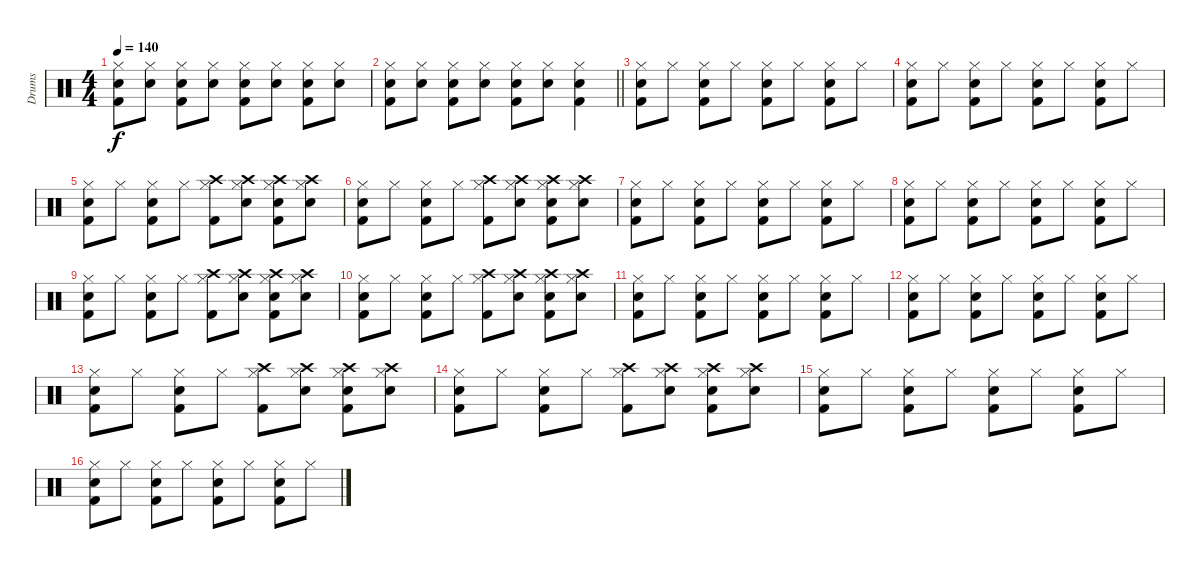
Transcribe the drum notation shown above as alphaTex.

\track ("Drums" "Drums") {instrument percussion}
\staff {score}
\articulation defaults
\ts (4 4)
\tempo 140
\clef neutral
\ks c
("Hi-Hat (closed)" "Electric Snare (hit)" "Kick (hit) 2").8{dy f} ("Hi-Hat (closed)" "Electric Snare (hit)").8 ("Hi-Hat (closed)" "Electric Snare (hit)" "Kick (hit) 2").8 ("Hi-Hat (closed)" "Electric Snare (hit)").8 ("Hi-Hat (closed)" "Electric Snare (hit)" "Kick (hit) 2").8 ("Hi-Hat (closed)" "Electric Snare (hit)").8 ("Hi-Hat (closed)" "Electric Snare (hit)" "Kick (hit) 2").8 ("Hi-Hat (closed)" "Electric Snare (hit)").8 |
\barLineRight lightlight
("Hi-Hat (closed)" "Electric Snare (hit)" "Kick (hit) 2").8 ("Hi-Hat (closed)" "Electric Snare (hit)").8 ("Hi-Hat (closed)" "Electric Snare (hit)" "Kick (hit) 2").8 ("Hi-Hat (closed)" "Electric Snare (hit)").8 ("Hi-Hat (closed)" "Electric Snare (hit)" "Kick (hit) 2").8 ("Hi-Hat (closed)" "Electric Snare (hit)").8 ("Hi-Hat (closed)" "Electric Snare (hit)" "Kick (hit) 2").4 |
("Hi-Hat (closed)" "Electric Snare (hit)" "Kick (hit) 2").8 "Hi-Hat (closed)".8 ("Hi-Hat (closed)" "Electric Snare (hit)" "Kick (hit) 2").8 "Hi-Hat (closed)".8 ("Hi-Hat (closed)" "Electric Snare (hit)" "Kick (hit) 2").8 "Hi-Hat (closed)".8 ("Hi-Hat (closed)" "Electric Snare (hit)" "Kick (hit) 2").8 "Hi-Hat (closed)".8 |
("Hi-Hat (closed)" "Electric Snare (hit)" "Kick (hit) 2").8 "Hi-Hat (closed)".8 ("Hi-Hat (closed)" "Electric Snare (hit)" "Kick (hit) 2").8 "Hi-Hat (closed)".8 ("Hi-Hat (closed)" "Electric Snare (hit)" "Kick (hit) 2").8 "Hi-Hat (closed)".8 ("Hi-Hat (closed)" "Electric Snare (hit)" "Kick (hit) 2").8 "Hi-Hat (closed)".8 |
("Hi-Hat (closed)" "Electric Snare (hit)" "Kick (hit) 2").8 "Hi-Hat (closed)".8 ("Hi-Hat (closed)" "Electric Snare (hit)" "Kick (hit) 2").8 "Hi-Hat (closed)".8 ("Hi-Hat (closed)" "Crash high (hit)" "Kick (hit) 2").8 ("Hi-Hat (closed)" "Crash high (hit)" "Electric Snare (hit)").8 ("Hi-Hat (closed)" "Crash high (hit)" "Electric Snare (hit)" "Kick (hit) 2").8 ("Hi-Hat (closed)" "Crash high (hit)" "Electric Snare (hit)").8 |
("Hi-Hat (closed)" "Electric Snare (hit)" "Kick (hit) 2").8 "Hi-Hat (closed)".8 ("Hi-Hat (closed)" "Electric Snare (hit)" "Kick (hit) 2").8 "Hi-Hat (closed)".8 ("Hi-Hat (closed)" "Crash high (hit)" "Kick (hit) 2").8 ("Hi-Hat (closed)" "Crash high (hit)" "Electric Snare (hit)").8 ("Hi-Hat (closed)" "Crash high (hit)" "Electric Snare (hit)" "Kick (hit) 2").8 ("Hi-Hat (closed)" "Crash high (hit)" "Electric Snare (hit)").8 |
("Hi-Hat (closed)" "Electric Snare (hit)" "Kick (hit) 2").8 "Hi-Hat (closed)".8 ("Hi-Hat (closed)" "Electric Snare (hit)" "Kick (hit) 2").8 "Hi-Hat (closed)".8 ("Hi-Hat (closed)" "Electric Snare (hit)" "Kick (hit) 2").8 "Hi-Hat (closed)".8 ("Hi-Hat (closed)" "Electric Snare (hit)" "Kick (hit) 2").8 "Hi-Hat (closed)".8 |
("Hi-Hat (closed)" "Electric Snare (hit)" "Kick (hit) 2").8 "Hi-Hat (closed)".8 ("Hi-Hat (closed)" "Electric Snare (hit)" "Kick (hit) 2").8 "Hi-Hat (closed)".8 ("Hi-Hat (closed)" "Electric Snare (hit)" "Kick (hit) 2").8 "Hi-Hat (closed)".8 ("Hi-Hat (closed)" "Electric Snare (hit)" "Kick (hit) 2").8 "Hi-Hat (closed)".8 |
("Hi-Hat (closed)" "Electric Snare (hit)" "Kick (hit) 2").8 "Hi-Hat (closed)".8 ("Hi-Hat (closed)" "Electric Snare (hit)" "Kick (hit) 2").8 "Hi-Hat (closed)".8 ("Hi-Hat (closed)" "Crash high (hit)" "Kick (hit) 2").8 ("Hi-Hat (closed)" "Crash high (hit)" "Electric Snare (hit)").8 ("Hi-Hat (closed)" "Crash high (hit)" "Electric Snare (hit)" "Kick (hit) 2").8 ("Hi-Hat (closed)" "Crash high (hit)" "Electric Snare (hit)").8 |
("Hi-Hat (closed)" "Electric Snare (hit)" "Kick (hit) 2").8 "Hi-Hat (closed)".8 ("Hi-Hat (closed)" "Electric Snare (hit)" "Kick (hit) 2").8 "Hi-Hat (closed)".8 ("Hi-Hat (closed)" "Crash high (hit)" "Kick (hit) 2").8 ("Hi-Hat (closed)" "Crash high (hit)" "Electric Snare (hit)").8 ("Hi-Hat (closed)" "Crash high (hit)" "Electric Snare (hit)" "Kick (hit) 2").8 ("Hi-Hat (closed)" "Crash high (hit)" "Electric Snare (hit)").8 |
("Hi-Hat (closed)" "Electric Snare (hit)" "Kick (hit) 2").8 "Hi-Hat (closed)".8 ("Hi-Hat (closed)" "Electric Snare (hit)" "Kick (hit) 2").8 "Hi-Hat (closed)".8 ("Hi-Hat (closed)" "Electric Snare (hit)" "Kick (hit) 2").8 "Hi-Hat (closed)".8 ("Hi-Hat (closed)" "Electric Snare (hit)" "Kick (hit) 2").8 "Hi-Hat (closed)".8 |
("Hi-Hat (closed)" "Electric Snare (hit)" "Kick (hit) 2").8 "Hi-Hat (closed)".8 ("Hi-Hat (closed)" "Electric Snare (hit)" "Kick (hit) 2").8 "Hi-Hat (closed)".8 ("Hi-Hat (closed)" "Electric Snare (hit)" "Kick (hit) 2").8 "Hi-Hat (closed)".8 ("Hi-Hat (closed)" "Electric Snare (hit)" "Kick (hit) 2").8 "Hi-Hat (closed)".8 |
("Hi-Hat (closed)" "Electric Snare (hit)" "Kick (hit) 2").8 "Hi-Hat (closed)".8 ("Hi-Hat (closed)" "Electric Snare (hit)" "Kick (hit) 2").8 "Hi-Hat (closed)".8 ("Hi-Hat (closed)" "Crash high (hit)" "Kick (hit) 2").8 ("Hi-Hat (closed)" "Crash high (hit)" "Electric Snare (hit)").8 ("Hi-Hat (closed)" "Crash high (hit)" "Electric Snare (hit)" "Kick (hit) 2").8 ("Hi-Hat (closed)" "Crash high (hit)" "Electric Snare (hit)").8 |
("Hi-Hat (closed)" "Electric Snare (hit)" "Kick (hit) 2").8 "Hi-Hat (closed)".8 ("Hi-Hat (closed)" "Electric Snare (hit)" "Kick (hit) 2").8 "Hi-Hat (closed)".8 ("Hi-Hat (closed)" "Crash high (hit)" "Kick (hit) 2").8 ("Hi-Hat (closed)" "Crash high (hit)" "Electric Snare (hit)").8 ("Hi-Hat (closed)" "Crash high (hit)" "Electric Snare (hit)" "Kick (hit) 2").8 ("Hi-Hat (closed)" "Crash high (hit)" "Electric Snare (hit)").8 |
("Hi-Hat (closed)" "Electric Snare (hit)" "Kick (hit) 2").8 "Hi-Hat (closed)".8 ("Hi-Hat (closed)" "Electric Snare (hit)" "Kick (hit) 2").8 "Hi-Hat (closed)".8 ("Hi-Hat (closed)" "Electric Snare (hit)" "Kick (hit) 2").8 "Hi-Hat (closed)".8 ("Hi-Hat (closed)" "Electric Snare (hit)" "Kick (hit) 2").8 "Hi-Hat (closed)".8 |
("Hi-Hat (closed)" "Electric Snare (hit)" "Kick (hit) 2").8 "Hi-Hat (closed)".8 ("Hi-Hat (closed)" "Electric Snare (hit)" "Kick (hit) 2").8 "Hi-Hat (closed)".8 ("Hi-Hat (closed)" "Electric Snare (hit)" "Kick (hit) 2").8 "Hi-Hat (closed)".8 ("Hi-Hat (closed)" "Electric Snare (hit)" "Kick (hit) 2").8 "Hi-Hat (closed)".8
